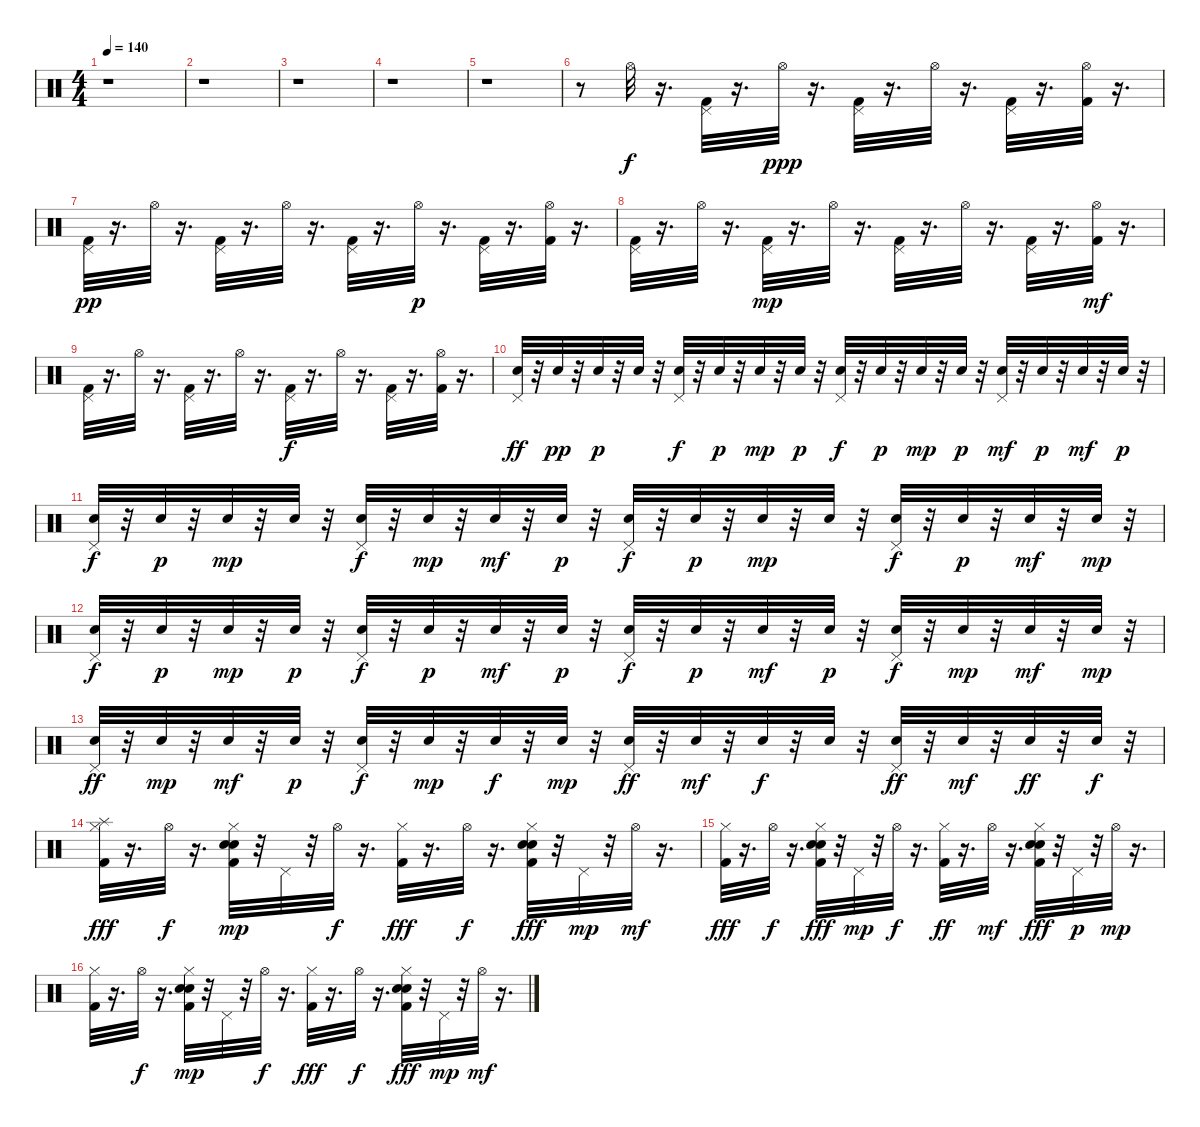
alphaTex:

\track "" {instrument percussion}
\staff {score}
\articulation defaults
\ts (4 4)
\tempo 140
\clef neutral
\ks c
r.1{dy f} |
r.1 |
r.1 |
r.1 |
r.1 |
r.8 "Hi-Hat (open)".32 r.16{d} ("Kick (hit) 2" "Pedal Hi-Hat (hit)").32 r.16{d} "Hi-Hat (open)".32{dy ppp} r.16{d} ("Kick (hit) 2" "Pedal Hi-Hat (hit)").32 r.16{d} "Hi-Hat (open)".32 r.16{d} ("Kick (hit) 2" "Pedal Hi-Hat (hit)").32 r.16{d} ("Kick (hit) 2" "Hi-Hat (open)").32 r.16{d} |
("Kick (hit) 2" "Pedal Hi-Hat (hit)").32{dy pp} r.16{d} "Hi-Hat (open)".32 r.16{d} ("Kick (hit) 2" "Pedal Hi-Hat (hit)").32 r.16{d} "Hi-Hat (open)".32 r.16{d} ("Kick (hit) 2" "Pedal Hi-Hat (hit)").32 r.16{d} "Hi-Hat (open)".32{dy p} r.16{d} ("Kick (hit) 2" "Pedal Hi-Hat (hit)").32 r.16{d} ("Kick (hit) 2" "Hi-Hat (open)").32 r.16{d} |
("Kick (hit) 2" "Pedal Hi-Hat (hit)").32 r.16{d} "Hi-Hat (open)".32 r.16{d} ("Kick (hit) 2" "Pedal Hi-Hat (hit)").32{dy mp} r.16{d} "Hi-Hat (open)".32 r.16{d} ("Kick (hit) 2" "Pedal Hi-Hat (hit)").32 r.16{d} "Hi-Hat (open)".32 r.16{d} ("Kick (hit) 2" "Pedal Hi-Hat (hit)").32 r.16{d} ("Kick (hit) 2" "Hi-Hat (open)").32{dy mf} r.16{d} |
("Kick (hit) 2" "Pedal Hi-Hat (hit)").32 r.16{d} "Hi-Hat (open)".32 r.16{d} ("Kick (hit) 2" "Pedal Hi-Hat (hit)").32 r.16{d} "Hi-Hat (open)".32 r.16{d} ("Kick (hit) 2" "Pedal Hi-Hat (hit)").32{dy f} r.16{d} "Hi-Hat (open)".32 r.16{d} ("Kick (hit) 2" "Pedal Hi-Hat (hit)").32 r.16{d} ("Kick (hit) 2" "Hi-Hat (open)").32 r.16{d} |
("Snare (hit) 2" "Pedal Hi-Hat (hit)").32{dy ff} r.32 "Snare (hit) 2".32{dy pp} r.32 "Snare (hit) 2".32{dy p} r.32 "Snare (hit) 2".32 r.32 ("Snare (hit) 2" "Pedal Hi-Hat (hit)").32{dy f} r.32 "Snare (hit) 2".32{dy p} r.32 "Snare (hit) 2".32{dy mp} r.32 "Snare (hit) 2".32{dy p} r.32 ("Snare (hit) 2" "Pedal Hi-Hat (hit)").32{dy f} r.32 "Snare (hit) 2".32{dy p} r.32 "Snare (hit) 2".32{dy mp} r.32 "Snare (hit) 2".32{dy p} r.32 ("Snare (hit) 2" "Pedal Hi-Hat (hit)").32{dy mf} r.32 "Snare (hit) 2".32{dy p} r.32 "Snare (hit) 2".32{dy mf} r.32 "Snare (hit) 2".32{dy p} r.32 |
("Snare (hit) 2" "Pedal Hi-Hat (hit)").32{dy f} r.32 "Snare (hit) 2".32{dy p} r.32 "Snare (hit) 2".32{dy mp} r.32 "Snare (hit) 2".32 r.32 ("Snare (hit) 2" "Pedal Hi-Hat (hit)").32{dy f} r.32 "Snare (hit) 2".32{dy mp} r.32 "Snare (hit) 2".32{dy mf} r.32 "Snare (hit) 2".32{dy p} r.32 ("Snare (hit) 2" "Pedal Hi-Hat (hit)").32{dy f} r.32 "Snare (hit) 2".32{dy p} r.32 "Snare (hit) 2".32{dy mp} r.32 "Snare (hit) 2".32 r.32 ("Snare (hit) 2" "Pedal Hi-Hat (hit)").32{dy f} r.32 "Snare (hit) 2".32{dy p} r.32 "Snare (hit) 2".32{dy mf} r.32 "Snare (hit) 2".32{dy mp} r.32 |
("Snare (hit) 2" "Pedal Hi-Hat (hit)").32{dy f} r.32 "Snare (hit) 2".32{dy p} r.32 "Snare (hit) 2".32{dy mp} r.32 "Snare (hit) 2".32{dy p} r.32 ("Snare (hit) 2" "Pedal Hi-Hat (hit)").32{dy f} r.32 "Snare (hit) 2".32{dy p} r.32 "Snare (hit) 2".32{dy mf} r.32 "Snare (hit) 2".32{dy p} r.32 ("Snare (hit) 2" "Pedal Hi-Hat (hit)").32{dy f} r.32 "Snare (hit) 2".32{dy p} r.32 "Snare (hit) 2".32{dy mf} r.32 "Snare (hit) 2".32{dy p} r.32 ("Snare (hit) 2" "Pedal Hi-Hat (hit)").32{dy f} r.32 "Snare (hit) 2".32{dy mp} r.32 "Snare (hit) 2".32{dy mf} r.32 "Snare (hit) 2".32{dy mp} r.32 |
("Snare (hit) 2" "Pedal Hi-Hat (hit)").32{dy ff} r.32 "Snare (hit) 2".32{dy mp} r.32 "Snare (hit) 2".32{dy mf} r.32 "Snare (hit) 2".32{dy p} r.32 ("Snare (hit) 2" "Pedal Hi-Hat (hit)").32{dy f} r.32 "Snare (hit) 2".32{dy mp} r.32 "Snare (hit) 2".32{dy f} r.32 "Snare (hit) 2".32{dy mp} r.32 ("Snare (hit) 2" "Pedal Hi-Hat (hit)").32{dy ff} r.32 "Snare (hit) 2".32{dy mf} r.32 "Snare (hit) 2".32{dy f} r.32 "Snare (hit) 2".32 r.32 ("Snare (hit) 2" "Pedal Hi-Hat (hit)").32{dy ff} r.32 "Snare (hit) 2".32{dy mf} r.32 "Snare (hit) 2".32{dy ff} r.32 "Snare (hit) 2".32{dy f} r.32 |
("Kick (hit) 2" "Hi-Hat (closed)" "Splash (hit)").32{dy fff} r.16{d} "Hi-Hat (open)".32{dy f} r.16{d} ("Kick (hit) 2" "Snare (hit) 2" "Hand Clap (hit)" "Hi-Hat (closed)").32{dy mp} r.32 "Pedal Hi-Hat (hit)".32 r.32 "Hi-Hat (open)".32{dy f} r.16{d} ("Kick (hit) 2" "Hi-Hat (closed)").32{dy fff} r.16{d} "Hi-Hat (open)".32{dy f} r.16{d} ("Kick (hit) 2" "Snare (hit) 2" "Hand Clap (hit)" "Hi-Hat (closed)").32{dy fff} r.32 "Pedal Hi-Hat (hit)".32{dy mp} r.32 "Hi-Hat (open)".32{dy mf} r.16{d} |
("Kick (hit) 2" "Hi-Hat (closed)").32{dy fff} r.16{d} "Hi-Hat (open)".32{dy f} r.16{d} ("Kick (hit) 2" "Snare (hit) 2" "Hand Clap (hit)" "Hi-Hat (closed)").32{dy fff} r.32 "Pedal Hi-Hat (hit)".32{dy mp} r.32 "Hi-Hat (open)".32{dy f} r.16{d} ("Kick (hit) 2" "Hi-Hat (closed)").32{dy ff} r.16{d} "Hi-Hat (open)".32{dy mf} r.16{d} ("Kick (hit) 2" "Snare (hit) 2" "Hand Clap (hit)" "Hi-Hat (closed)").32{dy fff} r.32 "Pedal Hi-Hat (hit)".32{dy p} r.32 "Hi-Hat (open)".32{dy mp} r.16{d} |
("Kick (hit) 2" "Hi-Hat (closed)").32 r.16{d} "Hi-Hat (open)".32{dy f} r.16{d} ("Kick (hit) 2" "Snare (hit) 2" "Hand Clap (hit)" "Hi-Hat (closed)").32{dy mp} r.32 "Pedal Hi-Hat (hit)".32 r.32 "Hi-Hat (open)".32{dy f} r.16{d} ("Kick (hit) 2" "Hi-Hat (closed)").32{dy fff} r.16{d} "Hi-Hat (open)".32{dy f} r.16{d} ("Kick (hit) 2" "Snare (hit) 2" "Hand Clap (hit)" "Hi-Hat (closed)").32{dy fff} r.32 "Pedal Hi-Hat (hit)".32{dy mp} r.32 "Hi-Hat (open)".32{dy mf} r.16{d}
